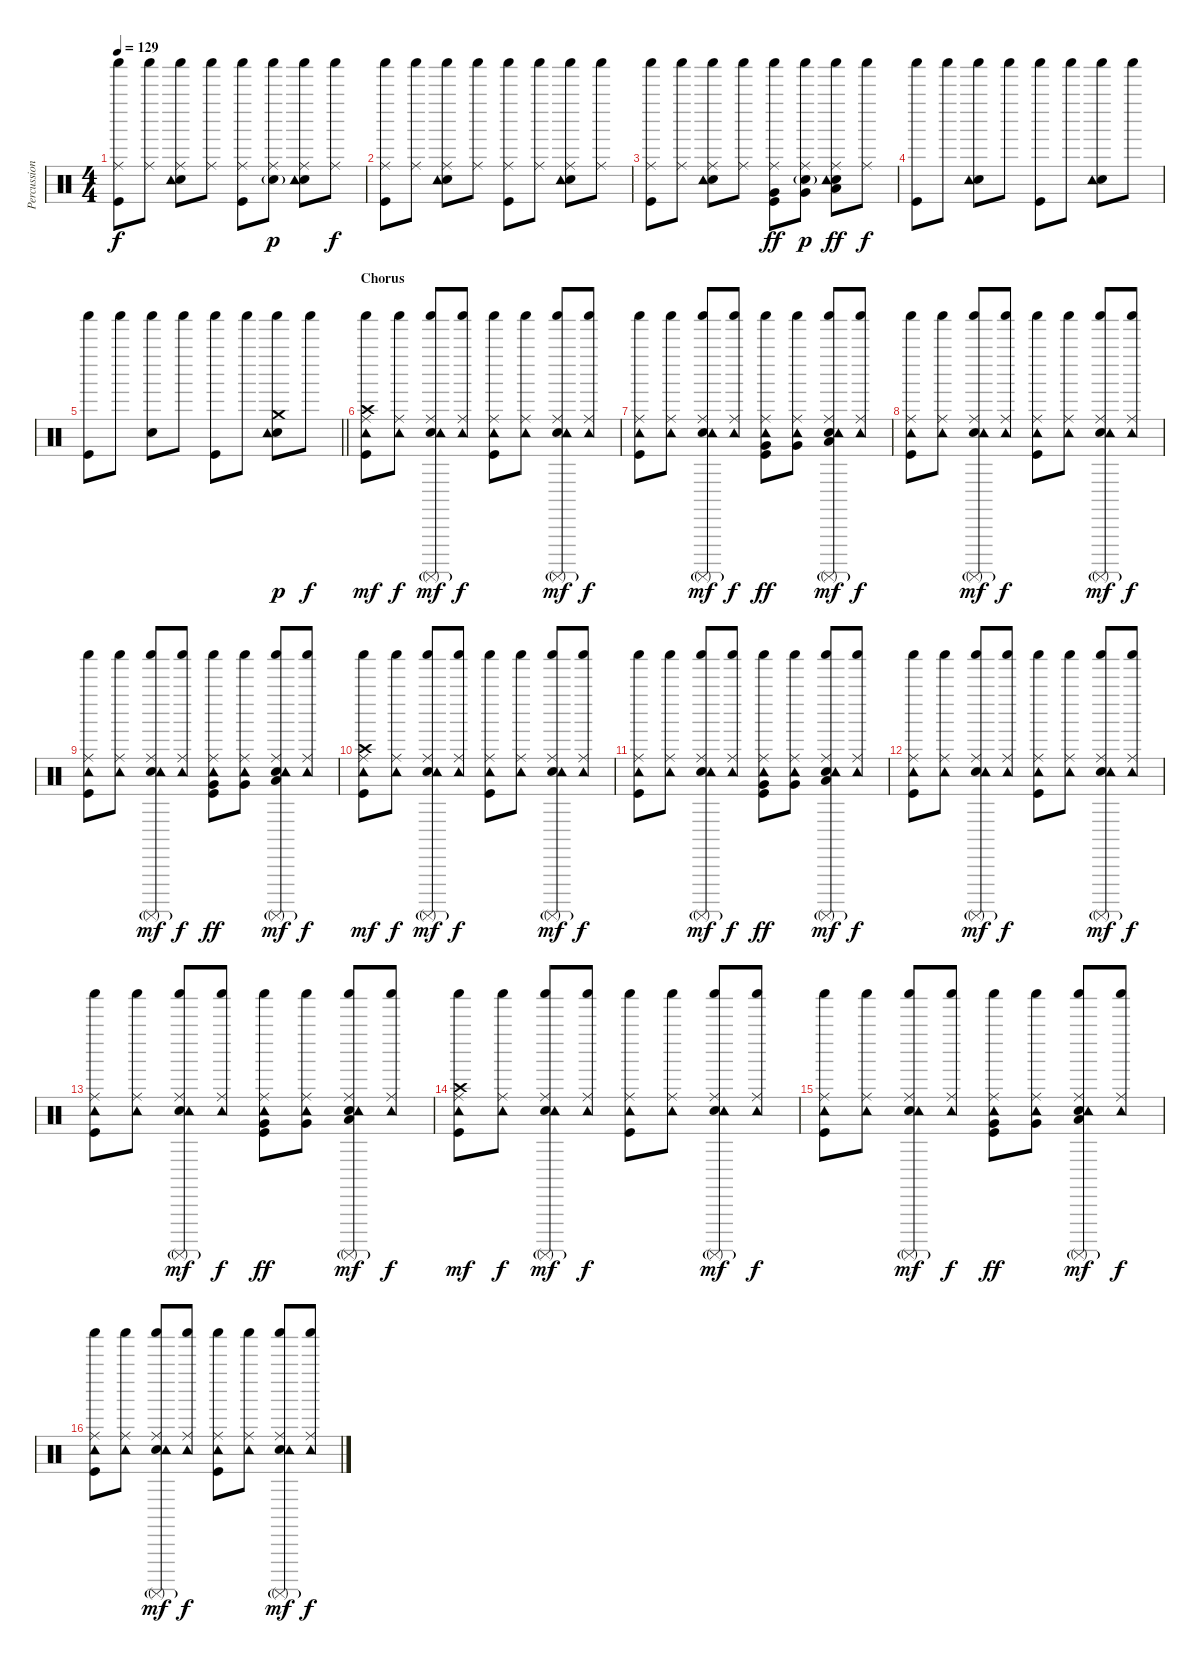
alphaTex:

\track ("Percussion" "Percussion") {instrument percussion}
\staff {score}
\articulation defaults
\ts (4 4)
\tempo 129
\clef neutral
\ks c
("Shaker (hit)" "Ride (middle)" "Kick (hit)").8{dy f} ("Shaker (hit)" "Ride (middle)").8 ("Shaker (hit)" "Ride (middle)" "Snare (hit) 2" "Tambourine (hit)").8 ("Shaker (hit)" "Ride (middle)").8 ("Shaker (hit)" "Ride (middle)" "Kick (hit)").8 ("Shaker (hit)" "Ride (middle)" "Electric Snare (hit)"{g}).8{dy p} ("Shaker (hit)" "Ride (middle)" "Snare (hit) 2" "Tambourine (hit)").8 ("Shaker (hit)" "Ride (middle)").8{dy f} |
("Shaker (hit)" "Ride (middle)" "Kick (hit)").8 ("Shaker (hit)" "Ride (middle)").8 ("Shaker (hit)" "Ride (middle)" "Snare (hit) 2" "Tambourine (hit)").8 ("Shaker (hit)" "Ride (middle)").8 ("Shaker (hit)" "Ride (middle)" "Kick (hit)").8 ("Shaker (hit)" "Ride (middle)").8 ("Shaker (hit)" "Ride (middle)" "Snare (hit) 2" "Tambourine (hit)").8 ("Shaker (hit)" "Ride (middle)").8 |
("Shaker (hit)" "Ride (middle)" "Kick (hit)").8 ("Shaker (hit)" "Ride (middle)").8 ("Shaker (hit)" "Ride (middle)" "Snare (hit) 2" "Tambourine (hit)").8 ("Shaker (hit)" "Ride (middle)").8 ("Very Low Tom (hit)" "Shaker (hit)" "Ride (middle)" "Kick (hit)").8{dy ff} ("Very Low Tom (hit)" "Shaker (hit)" "Ride (middle)" "Electric Snare (hit)"{g}).8{dy p} ("Low Floor Tom (hit)" "Shaker (hit)" "Ride (middle)" "Snare (hit) 2" "Tambourine (hit)").8{dy ff} ("Shaker (hit)" "Ride (middle)").8{dy f} |
("Shaker (hit)" "Kick (hit)").8 "Shaker (hit)".8 ("Shaker (hit)" "Snare (hit) 2" "Tambourine (hit)").8 "Shaker (hit)".8 ("Shaker (hit)" "Kick (hit)").8 "Shaker (hit)".8 ("Shaker (hit)" "Snare (hit) 2" "Tambourine (hit)").8 "Shaker (hit)".8 |
\barLineRight lightlight
("Shaker (hit)" "Kick (hit)").8 "Shaker (hit)".8 ("Shaker (hit)" "Snare (hit) 2").8 "Shaker (hit)".8 ("Shaker (hit)" "Kick (hit)").8 "Shaker (hit)".8 ("Crash medium (hit)" "Shaker (hit)" "Snare (hit) 2" "Tambourine (hit)").8{dy p} "Shaker (hit)".8{dy f} |
\section ("" "Chorus")
("Crash high (hit)" "Shaker (hit)" "Ride (middle)" "Tambourine (hit)" "Kick (hit)").8{dy mf} ("Shaker (hit)" "Ride (middle)" "Tambourine (hit)").8{dy f} ("Shaker (hit)" "Ride (middle)" "Snare (hit) 2" "Tambourine (hit)" "Surdo (mute)"{g}).8{dy mf} ("Shaker (hit)" "Ride (middle)" "Tambourine (hit)").8{dy f} ("Shaker (hit)" "Ride (middle)" "Tambourine (hit)" "Kick (hit)").8 ("Shaker (hit)" "Ride (middle)" "Tambourine (hit)").8 ("Shaker (hit)" "Ride (middle)" "Snare (hit) 2" "Tambourine (hit)" "Surdo (mute)"{g}).8{dy mf} ("Shaker (hit)" "Ride (middle)" "Tambourine (hit)").8{dy f} |
("Shaker (hit)" "Ride (middle)" "Tambourine (hit)" "Kick (hit)").8 ("Shaker (hit)" "Ride (middle)" "Tambourine (hit)").8 ("Shaker (hit)" "Ride (middle)" "Snare (hit) 2" "Tambourine (hit)" "Surdo (mute)"{g}).8{dy mf} ("Shaker (hit)" "Ride (middle)" "Tambourine (hit)").8{dy f} ("Very Low Tom (hit)" "Shaker (hit)" "Ride (middle)" "Tambourine (hit)" "Kick (hit)").8{dy ff} ("Very Low Tom (hit)" "Shaker (hit)" "Ride (middle)" "Tambourine (hit)").8 ("Low Floor Tom (hit)" "Shaker (hit)" "Ride (middle)" "Snare (hit) 2" "Tambourine (hit)" "Surdo (mute)"{g}).8{dy mf} ("Shaker (hit)" "Ride (middle)" "Tambourine (hit)").8{dy f} |
("Shaker (hit)" "Ride (middle)" "Tambourine (hit)" "Kick (hit)").8 ("Shaker (hit)" "Ride (middle)" "Tambourine (hit)").8 ("Shaker (hit)" "Ride (middle)" "Snare (hit) 2" "Tambourine (hit)" "Surdo (mute)"{g}).8{dy mf} ("Shaker (hit)" "Ride (middle)" "Tambourine (hit)").8{dy f} ("Shaker (hit)" "Ride (middle)" "Tambourine (hit)" "Kick (hit)").8 ("Shaker (hit)" "Ride (middle)" "Tambourine (hit)").8 ("Shaker (hit)" "Ride (middle)" "Snare (hit) 2" "Tambourine (hit)" "Surdo (mute)"{g}).8{dy mf} ("Shaker (hit)" "Ride (middle)" "Tambourine (hit)").8{dy f} |
("Shaker (hit)" "Ride (middle)" "Tambourine (hit)" "Kick (hit)").8 ("Shaker (hit)" "Ride (middle)" "Tambourine (hit)").8 ("Shaker (hit)" "Ride (middle)" "Snare (hit) 2" "Tambourine (hit)" "Surdo (mute)"{g}).8{dy mf} ("Shaker (hit)" "Ride (middle)" "Tambourine (hit)").8{dy f} ("Very Low Tom (hit)" "Shaker (hit)" "Ride (middle)" "Tambourine (hit)" "Kick (hit)").8{dy ff} ("Very Low Tom (hit)" "Shaker (hit)" "Ride (middle)" "Tambourine (hit)").8 ("Low Floor Tom (hit)" "Shaker (hit)" "Ride (middle)" "Snare (hit) 2" "Tambourine (hit)" "Surdo (mute)"{g}).8{dy mf} ("Shaker (hit)" "Ride (middle)" "Tambourine (hit)").8{dy f} |
("Crash high (hit)" "Shaker (hit)" "Ride (middle)" "Tambourine (hit)" "Kick (hit)").8{dy mf} ("Shaker (hit)" "Ride (middle)" "Tambourine (hit)").8{dy f} ("Shaker (hit)" "Ride (middle)" "Snare (hit) 2" "Tambourine (hit)" "Surdo (mute)"{g}).8{dy mf} ("Shaker (hit)" "Ride (middle)" "Tambourine (hit)").8{dy f} ("Shaker (hit)" "Ride (middle)" "Tambourine (hit)" "Kick (hit)").8 ("Shaker (hit)" "Ride (middle)" "Tambourine (hit)").8 ("Shaker (hit)" "Ride (middle)" "Snare (hit) 2" "Tambourine (hit)" "Surdo (mute)"{g}).8{dy mf} ("Shaker (hit)" "Ride (middle)" "Tambourine (hit)").8{dy f} |
("Shaker (hit)" "Ride (middle)" "Tambourine (hit)" "Kick (hit)").8 ("Shaker (hit)" "Ride (middle)" "Tambourine (hit)").8 ("Shaker (hit)" "Ride (middle)" "Snare (hit) 2" "Tambourine (hit)" "Surdo (mute)"{g}).8{dy mf} ("Shaker (hit)" "Ride (middle)" "Tambourine (hit)").8{dy f} ("Very Low Tom (hit)" "Shaker (hit)" "Ride (middle)" "Tambourine (hit)" "Kick (hit)").8{dy ff} ("Very Low Tom (hit)" "Shaker (hit)" "Ride (middle)" "Tambourine (hit)").8 ("Low Floor Tom (hit)" "Shaker (hit)" "Ride (middle)" "Snare (hit) 2" "Tambourine (hit)" "Surdo (mute)"{g}).8{dy mf} ("Shaker (hit)" "Ride (middle)" "Tambourine (hit)").8{dy f} |
("Shaker (hit)" "Ride (middle)" "Tambourine (hit)" "Kick (hit)").8 ("Shaker (hit)" "Ride (middle)" "Tambourine (hit)").8 ("Shaker (hit)" "Ride (middle)" "Snare (hit) 2" "Tambourine (hit)" "Surdo (mute)"{g}).8{dy mf} ("Shaker (hit)" "Ride (middle)" "Tambourine (hit)").8{dy f} ("Shaker (hit)" "Ride (middle)" "Tambourine (hit)" "Kick (hit)").8 ("Shaker (hit)" "Ride (middle)" "Tambourine (hit)").8 ("Shaker (hit)" "Ride (middle)" "Snare (hit) 2" "Tambourine (hit)" "Surdo (mute)"{g}).8{dy mf} ("Shaker (hit)" "Ride (middle)" "Tambourine (hit)").8{dy f} |
("Shaker (hit)" "Ride (middle)" "Tambourine (hit)" "Kick (hit)").8 ("Shaker (hit)" "Ride (middle)" "Tambourine (hit)").8 ("Shaker (hit)" "Ride (middle)" "Snare (hit) 2" "Tambourine (hit)" "Surdo (mute)"{g}).8{dy mf} ("Shaker (hit)" "Ride (middle)" "Tambourine (hit)").8{dy f} ("Very Low Tom (hit)" "Shaker (hit)" "Ride (middle)" "Tambourine (hit)" "Kick (hit)").8{dy ff} ("Very Low Tom (hit)" "Shaker (hit)" "Ride (middle)" "Tambourine (hit)").8 ("Low Floor Tom (hit)" "Shaker (hit)" "Ride (middle)" "Snare (hit) 2" "Tambourine (hit)" "Surdo (mute)"{g}).8{dy mf} ("Shaker (hit)" "Ride (middle)" "Tambourine (hit)").8{dy f} |
("Crash high (hit)" "Shaker (hit)" "Ride (middle)" "Tambourine (hit)" "Kick (hit)").8{dy mf} ("Shaker (hit)" "Ride (middle)" "Tambourine (hit)").8{dy f} ("Shaker (hit)" "Ride (middle)" "Snare (hit) 2" "Tambourine (hit)" "Surdo (mute)"{g}).8{dy mf} ("Shaker (hit)" "Ride (middle)" "Tambourine (hit)").8{dy f} ("Shaker (hit)" "Ride (middle)" "Tambourine (hit)" "Kick (hit)").8 ("Shaker (hit)" "Ride (middle)" "Tambourine (hit)").8 ("Shaker (hit)" "Ride (middle)" "Snare (hit) 2" "Tambourine (hit)" "Surdo (mute)"{g}).8{dy mf} ("Shaker (hit)" "Ride (middle)" "Tambourine (hit)").8{dy f} |
("Shaker (hit)" "Ride (middle)" "Tambourine (hit)" "Kick (hit)").8 ("Shaker (hit)" "Ride (middle)" "Tambourine (hit)").8 ("Shaker (hit)" "Ride (middle)" "Snare (hit) 2" "Tambourine (hit)" "Surdo (mute)"{g}).8{dy mf} ("Shaker (hit)" "Ride (middle)" "Tambourine (hit)").8{dy f} ("Very Low Tom (hit)" "Shaker (hit)" "Ride (middle)" "Tambourine (hit)" "Kick (hit)").8{dy ff} ("Very Low Tom (hit)" "Shaker (hit)" "Ride (middle)" "Tambourine (hit)").8 ("Low Floor Tom (hit)" "Shaker (hit)" "Ride (middle)" "Snare (hit) 2" "Tambourine (hit)" "Surdo (mute)"{g}).8{dy mf} ("Shaker (hit)" "Ride (middle)" "Tambourine (hit)").8{dy f} |
("Shaker (hit)" "Ride (middle)" "Tambourine (hit)" "Kick (hit)").8 ("Shaker (hit)" "Ride (middle)" "Tambourine (hit)").8 ("Shaker (hit)" "Ride (middle)" "Snare (hit) 2" "Tambourine (hit)" "Surdo (mute)"{g}).8{dy mf} ("Shaker (hit)" "Ride (middle)" "Tambourine (hit)").8{dy f} ("Shaker (hit)" "Ride (middle)" "Tambourine (hit)" "Kick (hit)").8 ("Shaker (hit)" "Ride (middle)" "Tambourine (hit)").8 ("Shaker (hit)" "Ride (middle)" "Snare (hit) 2" "Tambourine (hit)" "Surdo (mute)"{g}).8{dy mf} ("Shaker (hit)" "Ride (middle)" "Tambourine (hit)").8{dy f}
